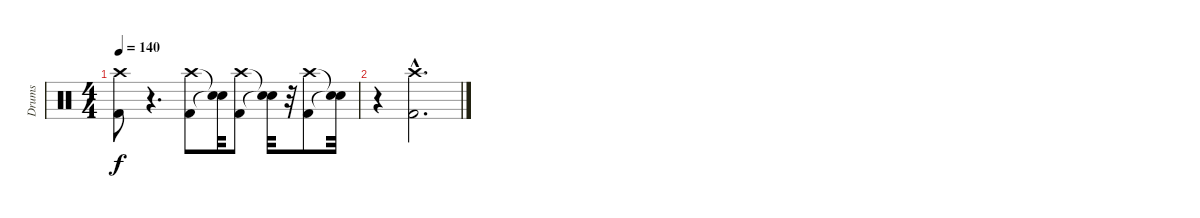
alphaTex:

\track ("Drums" "Drums") {instrument percussion}
\staff {score}
\articulation defaults
\ts (4 4)
\tempo 140
\clef neutral
\ks c
("Kick (hit) 2" "Crash high (hit)").8{dy f} r.4{d} ("Kick (hit) 2" "Crash high (hit)").8 ("Snare (hit)"{t} "Snare (hit)"{t}).32 ("Kick (hit) 2" "Crash high (hit)").8 ("Snare (hit)"{t} "Snare (hit)"{t}).32 r.32 ("Kick (hit) 2" "Crash high (hit)").8 ("Snare (hit)"{t} "Snare (hit)"{t}).32 |
r.4 ("Kick (hit) 2"{hac} "Crash high (hit)"{hac}).2{d}
